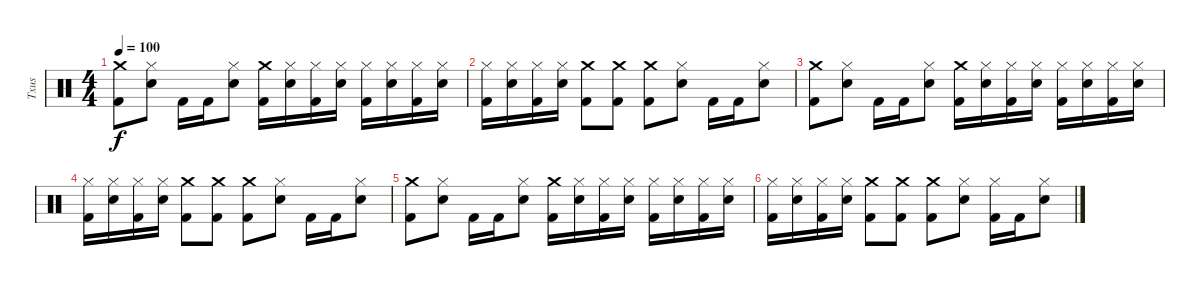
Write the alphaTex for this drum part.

\track ("Txus" "Txus") {instrument percussion}
\staff {score}
\articulation defaults
\ts (4 4)
\tempo 100
\clef neutral
\ks c
("Crash medium (hit)" "Kick (hit) 2").8{dy f} ("Hi-Hat (closed)" "Electric Snare (hit)").8 "Kick (hit) 2".16 "Kick (hit) 2".16 ("Hi-Hat (closed)" "Electric Snare (hit)").8 ("Crash medium (hit)" "Kick (hit) 2").16 ("Hi-Hat (closed)" "Electric Snare (hit)").16 ("Hi-Hat (closed)" "Kick (hit) 2").16 ("Hi-Hat (closed)" "Electric Snare (hit)").16 ("Hi-Hat (closed)" "Kick (hit) 2").16 ("Hi-Hat (closed)" "Electric Snare (hit)").16 ("Hi-Hat (closed)" "Kick (hit) 2").16 ("Hi-Hat (closed)" "Electric Snare (hit)").16 |
("Hi-Hat (closed)" "Kick (hit) 2").16 ("Hi-Hat (closed)" "Electric Snare (hit)").16 ("Hi-Hat (closed)" "Kick (hit) 2").16 ("Hi-Hat (closed)" "Electric Snare (hit)").16 ("Crash medium (hit)" "Kick (hit) 2").8 ("Crash medium (hit)" "Kick (hit) 2").8 ("Crash medium (hit)" "Kick (hit) 2").8 ("Hi-Hat (closed)" "Electric Snare (hit)").8 "Kick (hit) 2".16 "Kick (hit) 2".16 ("Hi-Hat (closed)" "Electric Snare (hit)").8 |
("Crash medium (hit)" "Kick (hit) 2").8 ("Hi-Hat (closed)" "Electric Snare (hit)").8 "Kick (hit) 2".16 "Kick (hit) 2".16 ("Hi-Hat (closed)" "Electric Snare (hit)").8 ("Crash medium (hit)" "Kick (hit) 2").16 ("Hi-Hat (closed)" "Electric Snare (hit)").16 ("Hi-Hat (closed)" "Kick (hit) 2").16 ("Hi-Hat (closed)" "Electric Snare (hit)").16 ("Hi-Hat (closed)" "Kick (hit) 2").16 ("Hi-Hat (closed)" "Electric Snare (hit)").16 ("Hi-Hat (closed)" "Kick (hit) 2").16 ("Hi-Hat (closed)" "Electric Snare (hit)").16 |
("Hi-Hat (closed)" "Kick (hit) 2").16 ("Hi-Hat (closed)" "Electric Snare (hit)").16 ("Hi-Hat (closed)" "Kick (hit) 2").16 ("Hi-Hat (closed)" "Electric Snare (hit)").16 ("Crash medium (hit)" "Kick (hit) 2").8 ("Crash medium (hit)" "Kick (hit) 2").8 ("Crash medium (hit)" "Kick (hit) 2").8 ("Hi-Hat (closed)" "Electric Snare (hit)").8 "Kick (hit) 2".16 "Kick (hit) 2".16 ("Hi-Hat (closed)" "Electric Snare (hit)").8 |
("Crash medium (hit)" "Kick (hit) 2").8 ("Hi-Hat (closed)" "Electric Snare (hit)").8 "Kick (hit) 2".16 "Kick (hit) 2".16 ("Hi-Hat (closed)" "Electric Snare (hit)").8 ("Crash medium (hit)" "Kick (hit) 2").16 ("Hi-Hat (closed)" "Electric Snare (hit)").16 ("Hi-Hat (closed)" "Kick (hit) 2").16 ("Hi-Hat (closed)" "Electric Snare (hit)").16 ("Hi-Hat (closed)" "Kick (hit) 2").16 ("Hi-Hat (closed)" "Electric Snare (hit)").16 ("Hi-Hat (closed)" "Kick (hit) 2").16 ("Hi-Hat (closed)" "Electric Snare (hit)").16 |
("Hi-Hat (closed)" "Kick (hit) 2").16 ("Hi-Hat (closed)" "Electric Snare (hit)").16 ("Hi-Hat (closed)" "Kick (hit) 2").16 ("Hi-Hat (closed)" "Electric Snare (hit)").16 ("Crash medium (hit)" "Kick (hit) 2").8 ("Crash medium (hit)" "Kick (hit) 2").8 ("Crash medium (hit)" "Kick (hit) 2").8 ("Hi-Hat (closed)" "Electric Snare (hit)").8 ("Hi-Hat (closed)" "Kick (hit) 2").16 "Kick (hit) 2".16 ("Hi-Hat (closed)" "Electric Snare (hit)").8
